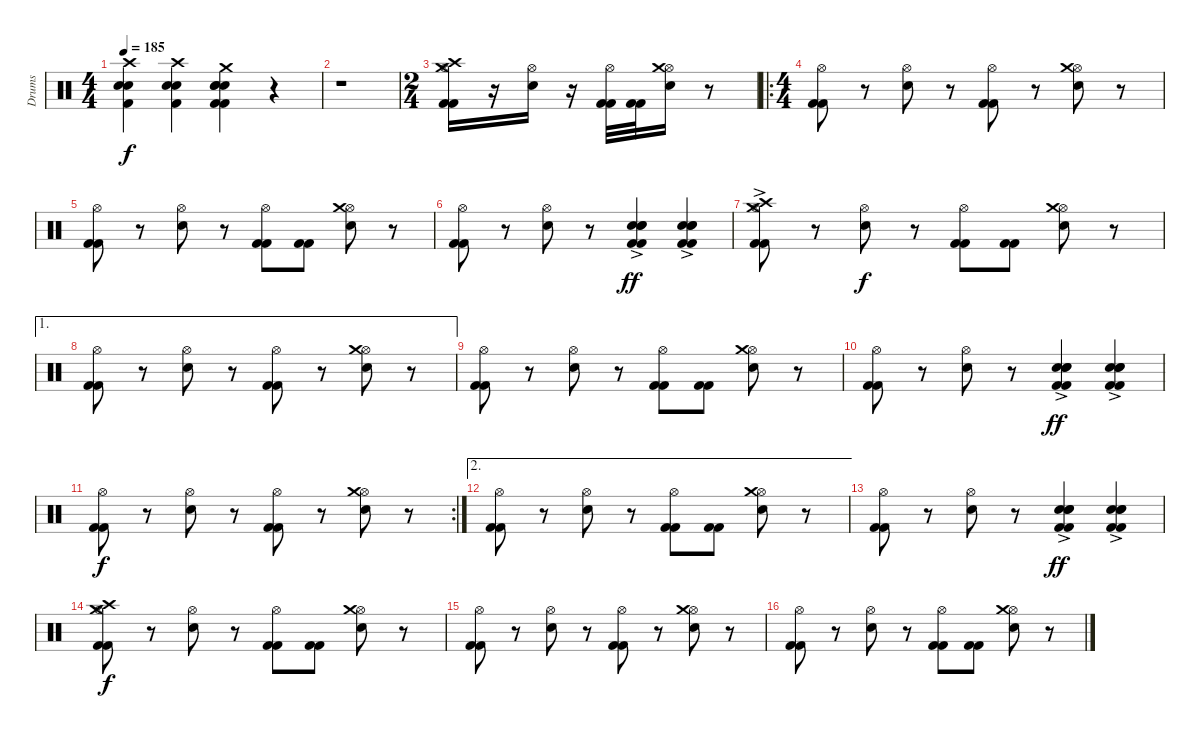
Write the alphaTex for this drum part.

\track ("Drums" "Drums") {instrument percussion}
\staff {score}
\articulation defaults
\ts (4 4)
\tempo 185
\clef neutral
\ks c
("Kick (hit) 2" "Snare (hit) 2" "Electric Snare (hit)" "Crash high (hit)").4{dy f} ("Kick (hit) 2" "Snare (hit) 2" "Electric Snare (hit)" "Crash high (hit)").4 ("Kick (hit) 2" "Snare (hit) 2" "Snare (hit) 2" "Electric Snare (hit)" "Crash medium (hit)" "Kick (hit) 2").4 r.4 |
r.1 |
\ts (2 4)
("Kick (hit) 2" "Kick (hit) 2" "Hi-Hat (open)" "Crash high (hit)" "Crash medium (hit)").16 r.16 ("Hi-Hat (open)" "Snare (hit) 2").16 r.16 ("Kick (hit) 2" "Kick (hit) 2" "Hi-Hat (open)").32 ("Kick (hit) 2" "Kick (hit) 2").32 ("Hi-Hat (open)" "Snare (hit) 2" "Crash medium (hit)").16 r.8 |
\ro
\ts (4 4)
("Kick (hit) 2" "Kick (hit) 2" "Hi-Hat (open)").8 r.8 ("Hi-Hat (open)" "Snare (hit) 2").8 r.8 ("Kick (hit) 2" "Kick (hit) 2" "Hi-Hat (open)").8 r.8 ("Hi-Hat (open)" "Snare (hit) 2" "Crash medium (hit)").8 r.8 |
("Kick (hit) 2" "Kick (hit) 2" "Hi-Hat (open)").8 r.8 ("Hi-Hat (open)" "Snare (hit) 2").8 r.8 ("Kick (hit) 2" "Kick (hit) 2" "Hi-Hat (open)").8 ("Kick (hit) 2" "Kick (hit) 2").8 ("Hi-Hat (open)" "Snare (hit) 2" "Crash medium (hit)").8 r.8 |
("Kick (hit) 2" "Kick (hit) 2" "Hi-Hat (open)").8 r.8 ("Hi-Hat (open)" "Snare (hit) 2").8 r.8 ("Kick (hit) 2" "Kick (hit) 2" "Snare (hit) 2" "Snare (hit) 2"{ac} "Snare (hit) 2").4{dy ff} ("Kick (hit) 2" "Kick (hit) 2" "Snare (hit) 2" "Snare (hit) 2"{ac} "Snare (hit) 2").4 |
("Kick (hit) 2" "Kick (hit) 2" "Hi-Hat (open)" "Crash high (hit)"{ac} "Crash medium (hit)").8 r.8 ("Hi-Hat (open)" "Snare (hit) 2").8{dy f} r.8 ("Kick (hit) 2" "Kick (hit) 2" "Hi-Hat (open)").8 ("Kick (hit) 2" "Kick (hit) 2").8 ("Hi-Hat (open)" "Snare (hit) 2" "Crash medium (hit)").8 r.8 |
\ae 1
("Kick (hit) 2" "Kick (hit) 2" "Hi-Hat (open)").8 r.8 ("Hi-Hat (open)" "Snare (hit) 2").8 r.8 ("Kick (hit) 2" "Kick (hit) 2" "Hi-Hat (open)").8 r.8 ("Hi-Hat (open)" "Snare (hit) 2" "Crash medium (hit)").8 r.8 |
("Kick (hit) 2" "Kick (hit) 2" "Hi-Hat (open)").8 r.8 ("Hi-Hat (open)" "Snare (hit) 2").8 r.8 ("Kick (hit) 2" "Kick (hit) 2" "Hi-Hat (open)").8 ("Kick (hit) 2" "Kick (hit) 2").8 ("Hi-Hat (open)" "Snare (hit) 2" "Crash medium (hit)").8 r.8 |
("Kick (hit) 2" "Kick (hit) 2" "Hi-Hat (open)").8 r.8 ("Hi-Hat (open)" "Snare (hit) 2").8 r.8 ("Kick (hit) 2" "Kick (hit) 2" "Snare (hit) 2" "Snare (hit) 2"{ac} "Snare (hit) 2").4{dy ff} ("Kick (hit) 2" "Kick (hit) 2" "Snare (hit) 2" "Snare (hit) 2"{ac} "Snare (hit) 2").4 |
\rc 2
("Kick (hit) 2" "Kick (hit) 2" "Hi-Hat (open)").8{dy f} r.8 ("Hi-Hat (open)" "Snare (hit) 2").8 r.8 ("Kick (hit) 2" "Kick (hit) 2" "Hi-Hat (open)").8 r.8 ("Hi-Hat (open)" "Snare (hit) 2" "Crash medium (hit)").8 r.8 |
\ae 2
("Kick (hit) 2" "Kick (hit) 2" "Hi-Hat (open)").8 r.8 ("Hi-Hat (open)" "Snare (hit) 2").8 r.8 ("Kick (hit) 2" "Kick (hit) 2" "Hi-Hat (open)").8 ("Kick (hit) 2" "Kick (hit) 2").8 ("Hi-Hat (open)" "Snare (hit) 2" "Crash medium (hit)").8 r.8 |
("Kick (hit) 2" "Kick (hit) 2" "Hi-Hat (open)").8 r.8 ("Hi-Hat (open)" "Snare (hit) 2").8 r.8 ("Kick (hit) 2" "Kick (hit) 2" "Snare (hit) 2" "Snare (hit) 2"{ac} "Snare (hit) 2").4{dy ff} ("Kick (hit) 2" "Kick (hit) 2" "Snare (hit) 2" "Snare (hit) 2"{ac} "Snare (hit) 2").4 |
("Kick (hit) 2" "Kick (hit) 2" "Hi-Hat (open)" "Crash high (hit)" "Crash medium (hit)").8{dy f} r.8 ("Hi-Hat (open)" "Snare (hit) 2").8 r.8 ("Kick (hit) 2" "Kick (hit) 2" "Hi-Hat (open)").8 ("Kick (hit) 2" "Kick (hit) 2").8 ("Hi-Hat (open)" "Snare (hit) 2" "Crash medium (hit)").8 r.8 |
("Kick (hit) 2" "Kick (hit) 2" "Hi-Hat (open)").8 r.8 ("Hi-Hat (open)" "Snare (hit) 2").8 r.8 ("Kick (hit) 2" "Kick (hit) 2" "Hi-Hat (open)").8 r.8 ("Hi-Hat (open)" "Snare (hit) 2" "Crash medium (hit)").8 r.8 |
("Kick (hit) 2" "Kick (hit) 2" "Hi-Hat (open)").8 r.8 ("Hi-Hat (open)" "Snare (hit) 2").8 r.8 ("Kick (hit) 2" "Kick (hit) 2" "Hi-Hat (open)").8 ("Kick (hit) 2" "Kick (hit) 2").8 ("Hi-Hat (open)" "Snare (hit) 2" "Crash medium (hit)").8 r.8
